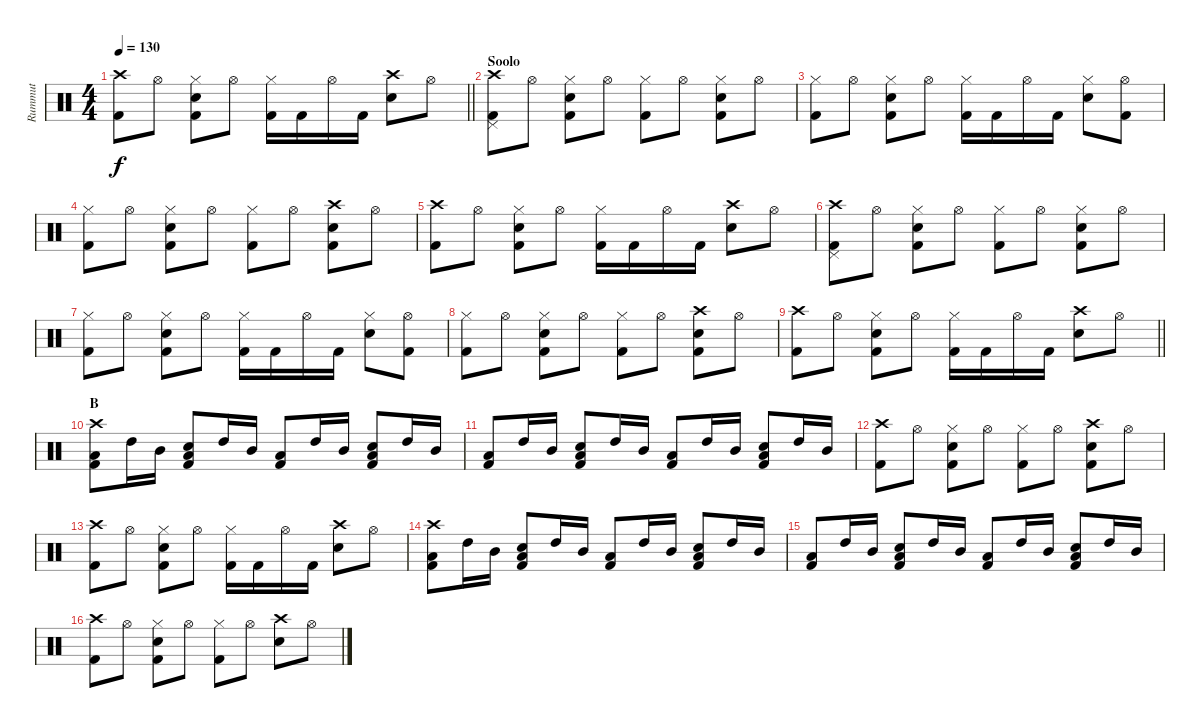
\track ("Rummut" "Rummut") {instrument percussion}
\staff {score}
\articulation defaults
\ts (4 4)
\tempo 130
\clef neutral
\barLineRight lightlight
\ks c
("Crash high (hit)" "Kick (hit) 2").8{dy f} "Hi-Hat (open)".8 ("Hi-Hat (closed)" "Snare (hit) 2" "Kick (hit) 2").8 "Hi-Hat (open)".8 ("Hi-Hat (closed)" "Kick (hit) 2").16 "Kick (hit) 2".16 "Hi-Hat (open)".16 "Kick (hit) 2".16 ("Crash high (hit)" "Snare (hit) 2").8 "Hi-Hat (open)".8 |
\section ("" "Soolo")
("Crash high (hit)" "Pedal Hi-Hat (hit)" "Kick (hit) 2").8 "Hi-Hat (open)".8 ("Hi-Hat (closed)" "Snare (hit) 2" "Kick (hit) 2").8 "Hi-Hat (open)".8 ("Hi-Hat (closed)" "Kick (hit) 2").8 "Hi-Hat (open)".8 ("Hi-Hat (closed)" "Snare (hit) 2" "Kick (hit) 2").8 "Hi-Hat (open)".8 |
("Hi-Hat (closed)" "Kick (hit) 2").8 "Hi-Hat (open)".8 ("Hi-Hat (closed)" "Snare (hit) 2" "Kick (hit) 2").8 "Hi-Hat (open)".8 ("Hi-Hat (closed)" "Kick (hit) 2").16 "Kick (hit) 2".16 "Hi-Hat (open)".16 "Kick (hit) 2".16 ("Hi-Hat (closed)" "Snare (hit) 2").8 ("Hi-Hat (open)" "Kick (hit) 2").8 |
("Hi-Hat (closed)" "Kick (hit) 2").8 "Hi-Hat (open)".8 ("Hi-Hat (closed)" "Snare (hit) 2" "Kick (hit) 2").8 "Hi-Hat (open)".8 ("Hi-Hat (closed)" "Kick (hit) 2").8 "Hi-Hat (open)".8 ("Crash high (hit)" "Snare (hit) 2" "Kick (hit) 2").8 "Hi-Hat (open)".8 |
("Crash high (hit)" "Kick (hit) 2").8 "Hi-Hat (open)".8 ("Hi-Hat (closed)" "Snare (hit) 2" "Kick (hit) 2").8 "Hi-Hat (open)".8 ("Hi-Hat (closed)" "Kick (hit) 2").16 "Kick (hit) 2".16 "Hi-Hat (open)".16 "Kick (hit) 2".16 ("Crash high (hit)" "Snare (hit) 2").8 "Hi-Hat (open)".8 |
("Crash high (hit)" "Pedal Hi-Hat (hit)" "Kick (hit) 2").8 "Hi-Hat (open)".8 ("Hi-Hat (closed)" "Snare (hit) 2" "Kick (hit) 2").8 "Hi-Hat (open)".8 ("Hi-Hat (closed)" "Kick (hit) 2").8 "Hi-Hat (open)".8 ("Hi-Hat (closed)" "Snare (hit) 2" "Kick (hit) 2").8 "Hi-Hat (open)".8 |
("Hi-Hat (closed)" "Kick (hit) 2").8 "Hi-Hat (open)".8 ("Hi-Hat (closed)" "Snare (hit) 2" "Kick (hit) 2").8 "Hi-Hat (open)".8 ("Hi-Hat (closed)" "Kick (hit) 2").16 "Kick (hit) 2".16 "Hi-Hat (open)".16 "Kick (hit) 2".16 ("Hi-Hat (closed)" "Snare (hit) 2").8 ("Hi-Hat (open)" "Kick (hit) 2").8 |
("Hi-Hat (closed)" "Kick (hit) 2").8 "Hi-Hat (open)".8 ("Hi-Hat (closed)" "Snare (hit) 2" "Kick (hit) 2").8 "Hi-Hat (open)".8 ("Hi-Hat (closed)" "Kick (hit) 2").8 "Hi-Hat (open)".8 ("Crash high (hit)" "Snare (hit) 2" "Kick (hit) 2").8 "Hi-Hat (open)".8 |
\barLineRight lightlight
("Crash high (hit)" "Kick (hit) 2").8 "Hi-Hat (open)".8 ("Hi-Hat (closed)" "Snare (hit) 2" "Kick (hit) 2").8 "Hi-Hat (open)".8 ("Hi-Hat (closed)" "Kick (hit) 2").16 "Kick (hit) 2".16 "Hi-Hat (open)".16 "Kick (hit) 2".16 ("Crash high (hit)" "Snare (hit) 2").8 "Hi-Hat (open)".8 |
\section ("" "B")
("Crash high (hit)" "Low Tom (hit)" "Kick (hit) 2").8 "High Tom (hit)".16 "Mid Tom (hit)".16 ("Snare (hit) 2" "Low Tom (hit)" "Kick (hit) 2").8 "High Tom (hit)".16 "Mid Tom (hit)".16 ("Low Tom (hit)" "Kick (hit) 2").8 "High Tom (hit)".16 "Mid Tom (hit)".16 ("Snare (hit) 2" "Low Tom (hit)" "Kick (hit) 2").8 "High Tom (hit)".16 "Mid Tom (hit)".16 |
("Low Tom (hit)" "Kick (hit) 2").8 "High Tom (hit)".16 "Mid Tom (hit)".16 ("Snare (hit) 2" "Low Tom (hit)" "Kick (hit) 2").8 "High Tom (hit)".16 "Mid Tom (hit)".16 ("Low Tom (hit)" "Kick (hit) 2").8 "High Tom (hit)".16 "Mid Tom (hit)".16 ("Snare (hit) 2" "Low Tom (hit)" "Kick (hit) 2").8 "High Tom (hit)".16 "Mid Tom (hit)".16 |
("Crash high (hit)" "Kick (hit) 2").8 "Hi-Hat (open)".8 ("Hi-Hat (closed)" "Snare (hit) 2" "Kick (hit) 2").8 "Hi-Hat (open)".8 ("Hi-Hat (closed)" "Kick (hit) 2").8 "Hi-Hat (open)".8 ("Crash high (hit)" "Snare (hit) 2" "Kick (hit) 2").8 "Hi-Hat (open)".8 |
("Crash high (hit)" "Kick (hit) 2").8 "Hi-Hat (open)".8 ("Hi-Hat (closed)" "Snare (hit) 2" "Kick (hit) 2").8 "Hi-Hat (open)".8 ("Hi-Hat (closed)" "Kick (hit) 2").16 "Kick (hit) 2".16 "Hi-Hat (open)".16 "Kick (hit) 2".16 ("Crash high (hit)" "Snare (hit) 2").8 "Hi-Hat (open)".8 |
("Crash high (hit)" "Low Tom (hit)" "Kick (hit) 2").8 "High Tom (hit)".16 "Mid Tom (hit)".16 ("Snare (hit) 2" "Low Tom (hit)" "Kick (hit) 2").8 "High Tom (hit)".16 "Mid Tom (hit)".16 ("Low Tom (hit)" "Kick (hit) 2").8 "High Tom (hit)".16 "Mid Tom (hit)".16 ("Snare (hit) 2" "Low Tom (hit)" "Kick (hit) 2").8 "High Tom (hit)".16 "Mid Tom (hit)".16 |
("Low Tom (hit)" "Kick (hit) 2").8 "High Tom (hit)".16 "Mid Tom (hit)".16 ("Snare (hit) 2" "Low Tom (hit)" "Kick (hit) 2").8 "High Tom (hit)".16 "Mid Tom (hit)".16 ("Low Tom (hit)" "Kick (hit) 2").8 "High Tom (hit)".16 "Mid Tom (hit)".16 ("Snare (hit) 2" "Low Tom (hit)" "Kick (hit) 2").8 "High Tom (hit)".16 "Mid Tom (hit)".16 |
("Crash high (hit)" "Kick (hit) 2").8 "Hi-Hat (open)".8 ("Hi-Hat (closed)" "Snare (hit) 2" "Kick (hit) 2").8 "Hi-Hat (open)".8 ("Hi-Hat (closed)" "Kick (hit) 2").8 "Hi-Hat (open)".8 ("Crash high (hit)" "Snare (hit) 2").8 "Hi-Hat (open)".8
